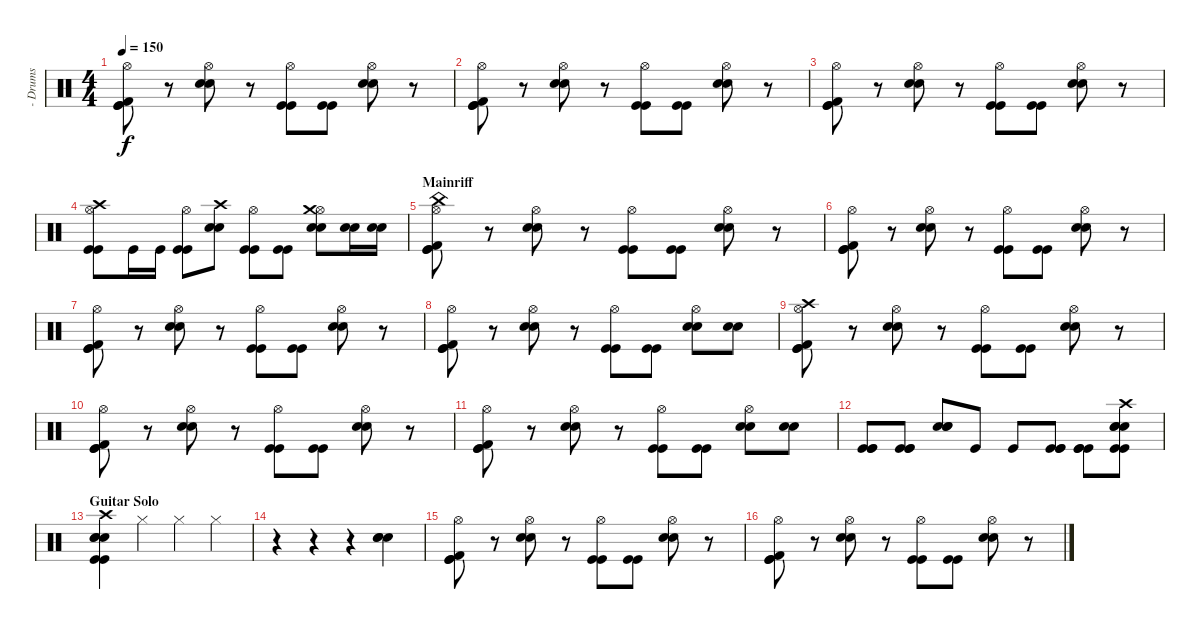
\track (" - Drums" " - Drums") {instrument percussion}
\staff {score}
\articulation defaults
\ts (4 4)
\tempo 150
\clef neutral
\ks c
("Hi-Hat (open)" "Kick (hit) 2" "Kick (hit)" "Kick (hit)").8{dy f} r.8 ("Hi-Hat (open)" "Snare (hit) 2" "Snare (hit) 2").8 r.8 ("Hi-Hat (open)" "Kick (hit)" "Kick (hit)").8 ("Kick (hit)" "Kick (hit)").8 ("Hi-Hat (open)" "Snare (hit) 2" "Snare (hit) 2").8 r.8 |
("Hi-Hat (open)" "Kick (hit) 2" "Kick (hit)" "Kick (hit)").8 r.8 ("Hi-Hat (open)" "Snare (hit) 2" "Snare (hit) 2").8 r.8 ("Hi-Hat (open)" "Kick (hit)" "Kick (hit)").8 ("Kick (hit)" "Kick (hit)").8 ("Hi-Hat (open)" "Snare (hit) 2" "Snare (hit) 2").8 r.8 |
("Hi-Hat (open)" "Kick (hit) 2" "Kick (hit)" "Kick (hit)").8 r.8 ("Hi-Hat (open)" "Snare (hit) 2" "Snare (hit) 2").8 r.8 ("Hi-Hat (open)" "Kick (hit)" "Kick (hit)").8 ("Kick (hit)" "Kick (hit)").8 ("Hi-Hat (open)" "Snare (hit) 2" "Snare (hit) 2").8 r.8 |
("Hi-Hat (open)" "Crash high (hit)" "Kick (hit)" "Kick (hit)").8 "Kick (hit)".16 "Kick (hit)".16 ("Hi-Hat (open)" "Kick (hit)" "Kick (hit)").8 ("Crash high (hit)" "Snare (hit) 2" "Snare (hit) 2").8 ("Hi-Hat (open)" "Kick (hit)" "Kick (hit)").8 ("Kick (hit)" "Kick (hit)").8 ("Hi-Hat (open)" "Crash medium (hit)" "Snare (hit) 2" "Snare (hit) 2").8 ("Snare (hit) 2" "Snare (hit) 2").16 ("Snare (hit) 2" "Snare (hit) 2").16 |
\section ("" "Mainriff")
("Hi-Hat (open)" "China (hit)" "Kick (hit) 2" "Kick (hit)" "Kick (hit)").8 r.8 ("Hi-Hat (open)" "Snare (hit) 2" "Snare (hit) 2").8 r.8 ("Hi-Hat (open)" "Kick (hit)" "Kick (hit)").8 ("Kick (hit)" "Kick (hit)").8 ("Hi-Hat (open)" "Snare (hit) 2" "Snare (hit) 2").8 r.8 |
("Hi-Hat (open)" "Kick (hit) 2" "Kick (hit)" "Kick (hit)").8 r.8 ("Hi-Hat (open)" "Snare (hit) 2" "Snare (hit) 2").8 r.8 ("Hi-Hat (open)" "Kick (hit)" "Kick (hit)").8 ("Kick (hit)" "Kick (hit)").8 ("Hi-Hat (open)" "Snare (hit) 2" "Snare (hit) 2").8 r.8 |
("Hi-Hat (open)" "Kick (hit) 2" "Kick (hit)" "Kick (hit)").8 r.8 ("Hi-Hat (open)" "Snare (hit) 2" "Snare (hit) 2").8 r.8 ("Hi-Hat (open)" "Kick (hit)" "Kick (hit)").8 ("Kick (hit)" "Kick (hit)").8 ("Hi-Hat (open)" "Snare (hit) 2" "Snare (hit) 2").8 r.8 |
("Hi-Hat (open)" "Kick (hit) 2" "Kick (hit)" "Kick (hit)").8 r.8 ("Hi-Hat (open)" "Snare (hit) 2" "Snare (hit) 2").8 r.8 ("Hi-Hat (open)" "Kick (hit)" "Kick (hit)").8 ("Kick (hit)" "Kick (hit)").8 ("Hi-Hat (open)" "Snare (hit) 2" "Snare (hit) 2").8 ("Snare (hit) 2" "Snare (hit) 2").8 |
("Hi-Hat (open)" "Crash high (hit)" "Kick (hit) 2" "Kick (hit)" "Kick (hit)").8 r.8 ("Hi-Hat (open)" "Snare (hit) 2" "Snare (hit) 2").8 r.8 ("Hi-Hat (open)" "Kick (hit)" "Kick (hit)").8 ("Kick (hit)" "Kick (hit)").8 ("Hi-Hat (open)" "Snare (hit) 2" "Snare (hit) 2").8 r.8 |
("Hi-Hat (open)" "Kick (hit) 2" "Kick (hit)" "Kick (hit)").8 r.8 ("Hi-Hat (open)" "Snare (hit) 2" "Snare (hit) 2").8 r.8 ("Hi-Hat (open)" "Kick (hit)" "Kick (hit)").8 ("Kick (hit)" "Kick (hit)").8 ("Hi-Hat (open)" "Snare (hit) 2" "Snare (hit) 2").8 r.8 |
("Hi-Hat (open)" "Kick (hit) 2" "Kick (hit)" "Kick (hit)").8 r.8 ("Hi-Hat (open)" "Snare (hit) 2" "Snare (hit) 2").8 r.8 ("Hi-Hat (open)" "Kick (hit)" "Kick (hit)").8 ("Kick (hit)" "Kick (hit)").8 ("Hi-Hat (open)" "Snare (hit) 2" "Snare (hit) 2").8 ("Snare (hit) 2" "Snare (hit) 2").8 |
("Kick (hit)" "Kick (hit)" "Kick (hit)").8 ("Kick (hit)" "Kick (hit)" "Kick (hit)").8 ("Snare (hit) 2" "Snare (hit) 2" "Snare (hit) 2").8 "Kick (hit)".8 "Kick (hit)".8 ("Kick (hit)" "Kick (hit)" "Kick (hit)").8 ("Kick (hit)" "Kick (hit)" "Kick (hit)").8 ("Crash high (hit)" "Snare (hit) 2" "Snare (hit) 2" "Snare (hit) 2" "Kick (hit)" "Kick (hit)").8 |
\section ("" "Guitar Solo")
("Crash high (hit)" "Snare (hit) 2" "Snare (hit) 2" "Snare (hit) 2" "Kick (hit)" "Kick (hit)").4 "Hi-Hat (closed)".4 "Hi-Hat (closed)".4 "Hi-Hat (closed)".4 |
r.4 r.4 r.4 ("Snare (hit) 2" "Snare (hit) 2" "Snare (hit) 2").4 |
("Hi-Hat (open)" "Kick (hit) 2" "Kick (hit)" "Kick (hit)").8 r.8 ("Hi-Hat (open)" "Snare (hit) 2" "Snare (hit) 2").8 r.8 ("Hi-Hat (open)" "Kick (hit)" "Kick (hit)").8 ("Kick (hit)" "Kick (hit)").8 ("Hi-Hat (open)" "Snare (hit) 2" "Snare (hit) 2").8 r.8 |
("Hi-Hat (open)" "Kick (hit) 2" "Kick (hit)" "Kick (hit)").8 r.8 ("Hi-Hat (open)" "Snare (hit) 2" "Snare (hit) 2").8 r.8 ("Hi-Hat (open)" "Kick (hit)" "Kick (hit)").8 ("Kick (hit)" "Kick (hit)").8 ("Hi-Hat (open)" "Snare (hit) 2" "Snare (hit) 2").8 r.8
